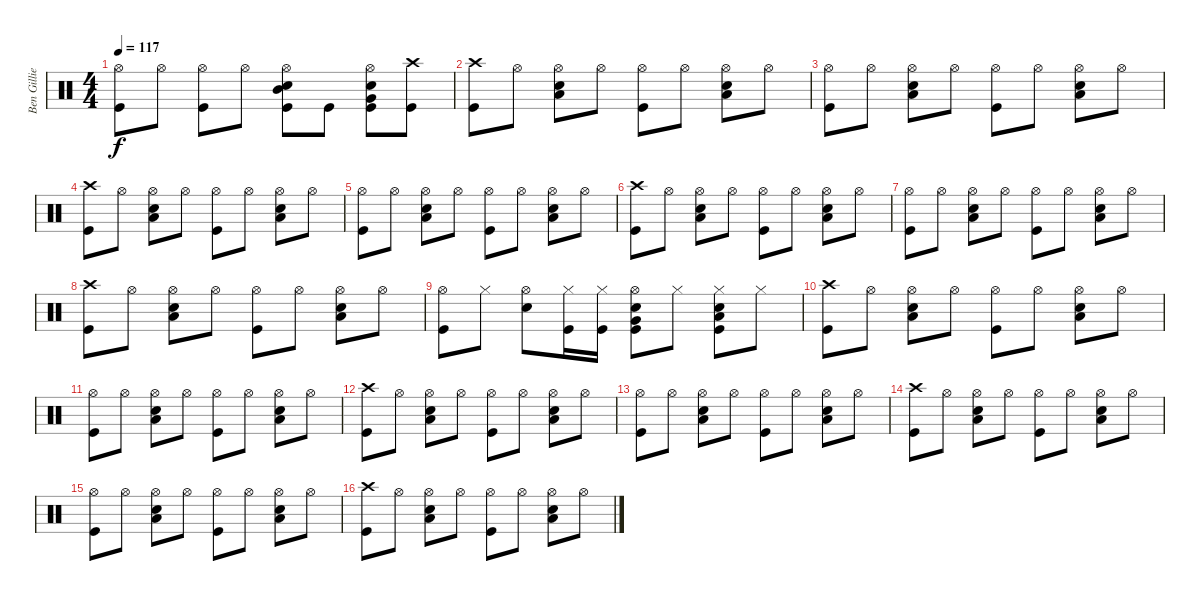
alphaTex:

\track ("Ben Gillies" "Ben Gillie") {instrument percussion}
\staff {score}
\articulation defaults
\ts (4 4)
\tempo 117
\clef neutral
\ks c
("Hi-Hat (open)" "Kick (hit)").8{dy f} "Hi-Hat (open)".8 ("Hi-Hat (open)" "Kick (hit)").8 "Hi-Hat (open)".8 ("Mid Tom (hit)" "Hi-Hat (open)" "Snare (hit) 2" "Kick (hit)").8 "Kick (hit)".8 ("Very Low Tom (hit)" "Hi-Hat (open)" "Kick (hit)" "Snare (hit) 2").8 ("Crash high (hit)" "Kick (hit)").8 |
("Crash high (hit)" "Kick (hit)").8 "Hi-Hat (open)".8 ("Snare (hit) 2" "Hi-Hat (open)" "Low Tom (hit)").8 "Hi-Hat (open)".8 ("Hi-Hat (open)" "Kick (hit)").8 "Hi-Hat (open)".8 ("Snare (hit) 2" "Hi-Hat (open)" "Low Tom (hit)").8 "Hi-Hat (open)".8 |
("Hi-Hat (open)" "Kick (hit)").8 "Hi-Hat (open)".8 ("Snare (hit) 2" "Hi-Hat (open)" "Low Tom (hit)").8 "Hi-Hat (open)".8 ("Hi-Hat (open)" "Kick (hit)").8 "Hi-Hat (open)".8 ("Snare (hit) 2" "Hi-Hat (open)" "Low Tom (hit)").8 "Hi-Hat (open)".8 |
("Crash high (hit)" "Kick (hit)").8 "Hi-Hat (open)".8 ("Snare (hit) 2" "Hi-Hat (open)" "Low Tom (hit)").8 "Hi-Hat (open)".8 ("Hi-Hat (open)" "Kick (hit)").8 "Hi-Hat (open)".8 ("Snare (hit) 2" "Hi-Hat (open)" "Low Tom (hit)").8 "Hi-Hat (open)".8 |
("Hi-Hat (open)" "Kick (hit)").8 "Hi-Hat (open)".8 ("Snare (hit) 2" "Hi-Hat (open)" "Low Tom (hit)").8 "Hi-Hat (open)".8 ("Hi-Hat (open)" "Kick (hit)").8 "Hi-Hat (open)".8 ("Snare (hit) 2" "Hi-Hat (open)" "Low Tom (hit)").8 "Hi-Hat (open)".8 |
("Crash high (hit)" "Kick (hit)").8 "Hi-Hat (open)".8 ("Snare (hit) 2" "Hi-Hat (open)" "Low Tom (hit)").8 "Hi-Hat (open)".8 ("Hi-Hat (open)" "Kick (hit)").8 "Hi-Hat (open)".8 ("Snare (hit) 2" "Hi-Hat (open)" "Low Tom (hit)").8 "Hi-Hat (open)".8 |
("Hi-Hat (open)" "Kick (hit)").8 "Hi-Hat (open)".8 ("Snare (hit) 2" "Hi-Hat (open)" "Low Tom (hit)").8 "Hi-Hat (open)".8 ("Hi-Hat (open)" "Kick (hit)").8 "Hi-Hat (open)".8 ("Snare (hit) 2" "Hi-Hat (open)" "Low Tom (hit)").8 "Hi-Hat (open)".8 |
("Crash high (hit)" "Kick (hit)").8 "Hi-Hat (open)".8 ("Snare (hit) 2" "Hi-Hat (open)" "Low Tom (hit)").8 "Hi-Hat (open)".8 ("Hi-Hat (open)" "Kick (hit)").8 "Hi-Hat (open)".8 ("Snare (hit) 2" "Hi-Hat (open)" "Low Tom (hit)").8 "Hi-Hat (open)".8 |
("Hi-Hat (open)" "Kick (hit)").8 "Hi-Hat (closed)".8 ("Snare (hit) 2" "Hi-Hat (open)").8 ("Hi-Hat (closed)" "Kick (hit)").16 ("Hi-Hat (closed)" "Kick (hit)").16 ("Snare (hit) 2" "Hi-Hat (open)" "Kick (hit)" "Very Low Tom (hit)").8 "Hi-Hat (closed)".8 ("Snare (hit) 2" "Hi-Hat (closed)" "Kick (hit)" "Low Floor Tom (hit)").8 "Hi-Hat (closed)".8 |
("Crash high (hit)" "Kick (hit)").8 "Hi-Hat (open)".8 ("Snare (hit) 2" "Hi-Hat (open)" "Low Tom (hit)").8 "Hi-Hat (open)".8 ("Hi-Hat (open)" "Kick (hit)").8 "Hi-Hat (open)".8 ("Snare (hit) 2" "Hi-Hat (open)" "Low Tom (hit)").8 "Hi-Hat (open)".8 |
("Hi-Hat (open)" "Kick (hit)").8 "Hi-Hat (open)".8 ("Snare (hit) 2" "Hi-Hat (open)" "Low Tom (hit)").8 "Hi-Hat (open)".8 ("Hi-Hat (open)" "Kick (hit)").8 "Hi-Hat (open)".8 ("Snare (hit) 2" "Hi-Hat (open)" "Low Tom (hit)").8 "Hi-Hat (open)".8 |
("Crash high (hit)" "Kick (hit)").8 "Hi-Hat (open)".8 ("Snare (hit) 2" "Hi-Hat (open)" "Low Tom (hit)").8 "Hi-Hat (open)".8 ("Hi-Hat (open)" "Kick (hit)").8 "Hi-Hat (open)".8 ("Snare (hit) 2" "Hi-Hat (open)" "Low Tom (hit)").8 "Hi-Hat (open)".8 |
("Hi-Hat (open)" "Kick (hit)").8 "Hi-Hat (open)".8 ("Snare (hit) 2" "Hi-Hat (open)" "Low Tom (hit)").8 "Hi-Hat (open)".8 ("Hi-Hat (open)" "Kick (hit)").8 "Hi-Hat (open)".8 ("Snare (hit) 2" "Hi-Hat (open)" "Low Tom (hit)").8 "Hi-Hat (open)".8 |
("Crash high (hit)" "Kick (hit)").8 "Hi-Hat (open)".8 ("Snare (hit) 2" "Hi-Hat (open)" "Low Tom (hit)").8 "Hi-Hat (open)".8 ("Hi-Hat (open)" "Kick (hit)").8 "Hi-Hat (open)".8 ("Snare (hit) 2" "Hi-Hat (open)" "Low Tom (hit)").8 "Hi-Hat (open)".8 |
("Hi-Hat (open)" "Kick (hit)").8 "Hi-Hat (open)".8 ("Snare (hit) 2" "Hi-Hat (open)" "Low Tom (hit)").8 "Hi-Hat (open)".8 ("Hi-Hat (open)" "Kick (hit)").8 "Hi-Hat (open)".8 ("Snare (hit) 2" "Hi-Hat (open)" "Low Tom (hit)").8 "Hi-Hat (open)".8 |
("Crash high (hit)" "Kick (hit)").8 "Hi-Hat (open)".8 ("Snare (hit) 2" "Hi-Hat (open)" "Low Tom (hit)").8 "Hi-Hat (open)".8 ("Hi-Hat (open)" "Kick (hit)").8 "Hi-Hat (open)".8 ("Snare (hit) 2" "Hi-Hat (open)" "Low Tom (hit)").8 "Hi-Hat (open)".8
